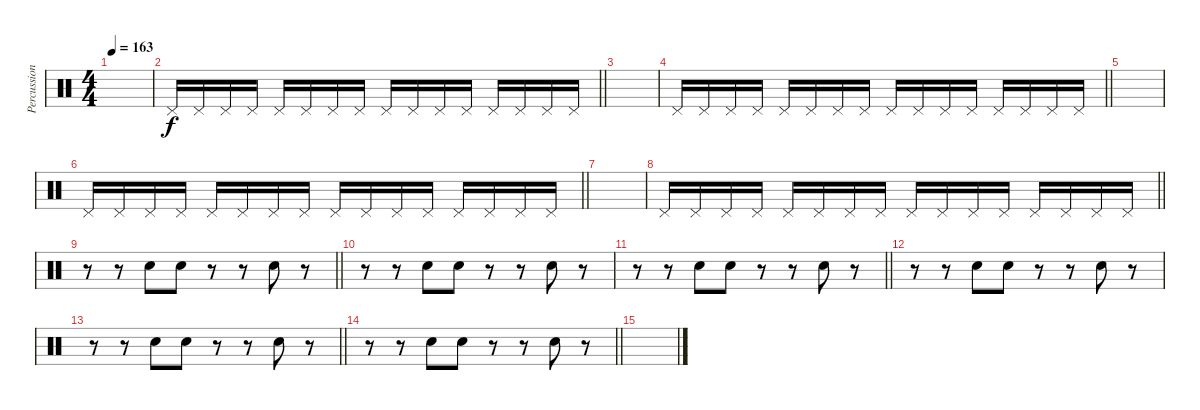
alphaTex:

\track ("Percussion" "Percussion") {instrument percussion}
\staff {score}
\articulation defaults
\ts (4 4)
\tempo 163
\clef neutral
\ks c
|
\barLineRight lightlight "Pedal Hi-Hat (hit)".16 "Pedal Hi-Hat (hit)".16 "Pedal Hi-Hat (hit)".16 "Pedal Hi-Hat (hit)".16 "Pedal Hi-Hat (hit)".16 "Pedal Hi-Hat (hit)".16 "Pedal Hi-Hat (hit)".16 "Pedal Hi-Hat (hit)".16 "Pedal Hi-Hat (hit)".16 "Pedal Hi-Hat (hit)".16 "Pedal Hi-Hat (hit)".16 "Pedal Hi-Hat (hit)".16 "Pedal Hi-Hat (hit)".16 "Pedal Hi-Hat (hit)".16 "Pedal Hi-Hat (hit)".16 "Pedal Hi-Hat (hit)".16
|
|
\barLineRight lightlight "Pedal Hi-Hat (hit)".16 "Pedal Hi-Hat (hit)".16 "Pedal Hi-Hat (hit)".16 "Pedal Hi-Hat (hit)".16 "Pedal Hi-Hat (hit)".16 "Pedal Hi-Hat (hit)".16 "Pedal Hi-Hat (hit)".16 "Pedal Hi-Hat (hit)".16 "Pedal Hi-Hat (hit)".16 "Pedal Hi-Hat (hit)".16 "Pedal Hi-Hat (hit)".16 "Pedal Hi-Hat (hit)".16 "Pedal Hi-Hat (hit)".16 "Pedal Hi-Hat (hit)".16 "Pedal Hi-Hat (hit)".16 "Pedal Hi-Hat (hit)".16
|
|
\barLineRight lightlight "Pedal Hi-Hat (hit)".16 "Pedal Hi-Hat (hit)".16 "Pedal Hi-Hat (hit)".16 "Pedal Hi-Hat (hit)".16 "Pedal Hi-Hat (hit)".16 "Pedal Hi-Hat (hit)".16 "Pedal Hi-Hat (hit)".16 "Pedal Hi-Hat (hit)".16 "Pedal Hi-Hat (hit)".16 "Pedal Hi-Hat (hit)".16 "Pedal Hi-Hat (hit)".16 "Pedal Hi-Hat (hit)".16 "Pedal Hi-Hat (hit)".16 "Pedal Hi-Hat (hit)".16 "Pedal Hi-Hat (hit)".16 "Pedal Hi-Hat (hit)".16
|
|
\barLineRight lightlight "Pedal Hi-Hat (hit)".16 "Pedal Hi-Hat (hit)".16 "Pedal Hi-Hat (hit)".16 "Pedal Hi-Hat (hit)".16 "Pedal Hi-Hat (hit)".16 "Pedal Hi-Hat (hit)".16 "Pedal Hi-Hat (hit)".16 "Pedal Hi-Hat (hit)".16 "Pedal Hi-Hat (hit)".16 "Pedal Hi-Hat (hit)".16 "Pedal Hi-Hat (hit)".16 "Pedal Hi-Hat (hit)".16 "Pedal Hi-Hat (hit)".16 "Pedal Hi-Hat (hit)".16 "Pedal Hi-Hat (hit)".16 "Pedal Hi-Hat (hit)".16
|
\section ("" "")
\barLineRight lightlight
r.8 r.8 "Hand Clap (hit)".8 "Hand Clap (hit)".8 r.8 r.8 "Hand Clap (hit)".8 r.8 |
r.8 r.8 "Hand Clap (hit)".8 "Hand Clap (hit)".8 r.8 r.8 "Hand Clap (hit)".8 r.8 |
\barLineRight lightlight
r.8 r.8 "Hand Clap (hit)".8 "Hand Clap (hit)".8 r.8 r.8 "Hand Clap (hit)".8 r.8 |
r.8 r.8 "Hand Clap (hit)".8 "Hand Clap (hit)".8 r.8 r.8 "Hand Clap (hit)".8 r.8 |
\barLineRight lightlight
r.8 r.8 "Hand Clap (hit)".8 "Hand Clap (hit)".8 r.8 r.8 "Hand Clap (hit)".8 r.8 |
\barLineRight lightlight
r.8 r.8 "Hand Clap (hit)".8 "Hand Clap (hit)".8 r.8 r.8 "Hand Clap (hit)".8 r.8 |
\section ("" "")
